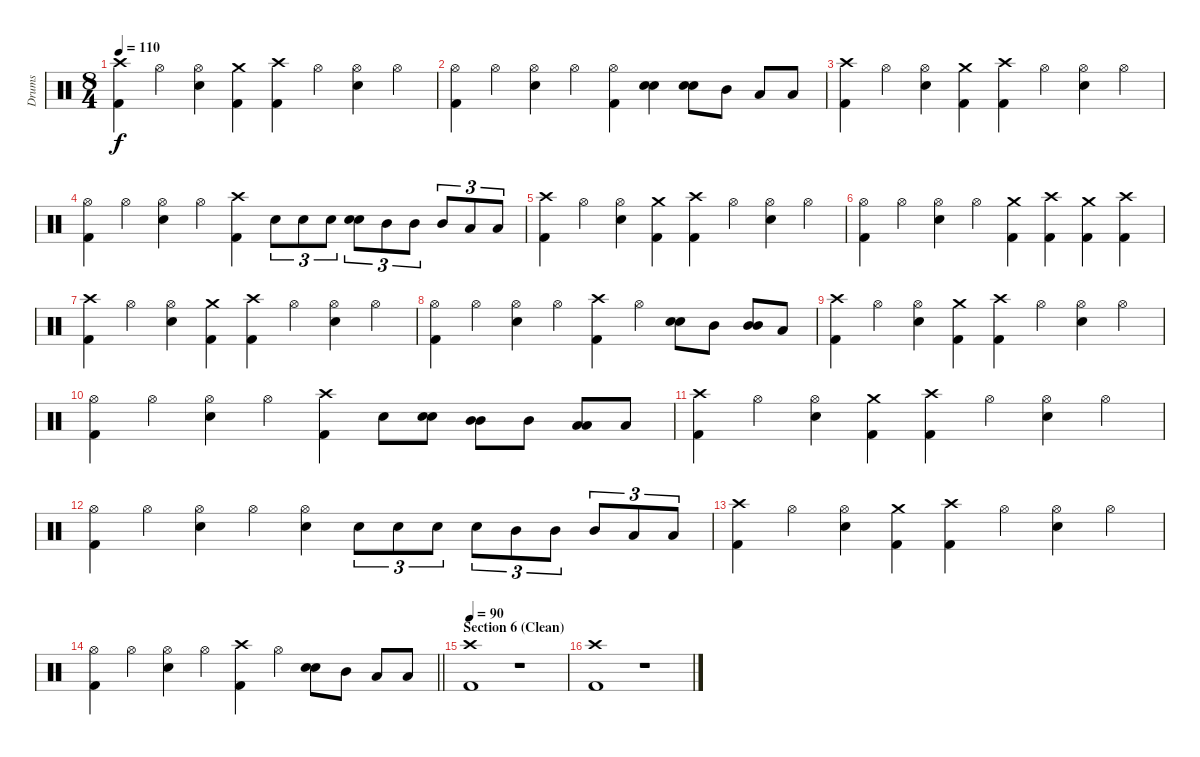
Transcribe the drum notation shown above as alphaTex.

\track ("Drums" "Drums") {instrument percussion}
\staff {score}
\articulation defaults
\ts (8 4)
\tempo 110
\clef neutral
\ks c
("Crash high (hit)" "Kick (hit) 2").4{dy f} "Hi-Hat (open)".4 ("Hi-Hat (open)" "Electric Snare (hit)").4 ("Crash medium (hit)" "Kick (hit) 2").4 ("Crash high (hit)" "Kick (hit) 2").4 "Hi-Hat (open)".4 ("Hi-Hat (open)" "Electric Snare (hit)").4 "Hi-Hat (open)".4 |
("Hi-Hat (open)" "Kick (hit) 2").4 "Hi-Hat (open)".4 ("Hi-Hat (open)" "Electric Snare (hit)").4 "Hi-Hat (open)".4 ("Hi-Hat (open)" "Kick (hit) 2").4 ("Electric Snare (hit)" "Electric Snare (hit)").4{bu 60} ("Electric Snare (hit)" "Electric Snare (hit)").8{bu 60} "Mid Tom (hit)".8 "Low Tom (hit)".8 "Low Tom (hit)".8 |
("Crash high (hit)" "Kick (hit) 2").4 "Hi-Hat (open)".4 ("Hi-Hat (open)" "Electric Snare (hit)").4 ("Crash medium (hit)" "Kick (hit) 2").4 ("Crash high (hit)" "Kick (hit) 2").4 "Hi-Hat (open)".4 ("Hi-Hat (open)" "Electric Snare (hit)").4 "Hi-Hat (open)".4 |
("Hi-Hat (open)" "Kick (hit) 2").4 "Hi-Hat (open)".4 ("Hi-Hat (open)" "Electric Snare (hit)").4 "Hi-Hat (open)".4 ("Crash high (hit)" "Kick (hit) 2").4 "Electric Snare (hit)".8{tu (3 2)} "Electric Snare (hit)".8{tu (3 2)} "Electric Snare (hit)".8{tu (3 2)} ("Electric Snare (hit)" "Electric Snare (hit)").8{tu (3 2) bu 60} "Mid Tom (hit)".8{tu (3 2)} "Mid Tom (hit)".8{tu (3 2)} "Mid Tom (hit)".8{tu (3 2)} "Low Tom (hit)".8{tu (3 2)} "Low Tom (hit)".8{tu (3 2)} |
("Crash high (hit)" "Kick (hit) 2").4 "Hi-Hat (open)".4 ("Hi-Hat (open)" "Electric Snare (hit)").4 ("Crash medium (hit)" "Kick (hit) 2").4 ("Crash high (hit)" "Kick (hit) 2").4 "Hi-Hat (open)".4 ("Hi-Hat (open)" "Electric Snare (hit)").4 "Hi-Hat (open)".4 |
("Hi-Hat (open)" "Kick (hit) 2").4 "Hi-Hat (open)".4 ("Hi-Hat (open)" "Electric Snare (hit)").4 "Hi-Hat (open)".4 ("Crash medium (hit)" "Kick (hit) 2").4 ("Crash high (hit)" "Kick (hit) 2").4 ("Crash medium (hit)" "Kick (hit) 2").4 ("Crash high (hit)" "Kick (hit) 2").4 |
("Crash high (hit)" "Kick (hit) 2").4 "Hi-Hat (open)".4 ("Hi-Hat (open)" "Electric Snare (hit)").4 ("Crash medium (hit)" "Kick (hit) 2").4 ("Crash high (hit)" "Kick (hit) 2").4 "Hi-Hat (open)".4 ("Hi-Hat (open)" "Electric Snare (hit)").4 "Hi-Hat (open)".4 |
("Hi-Hat (open)" "Kick (hit) 2").4 "Hi-Hat (open)".4 ("Hi-Hat (open)" "Electric Snare (hit)").4 "Hi-Hat (open)".4 ("Crash high (hit)" "Kick (hit) 2").4 "Hi-Hat (open)".4 ("Electric Snare (hit)" "Electric Snare (hit)").8{bu 60} "Mid Tom (hit)".8 ("Mid Tom (hit)" "Mid Tom (hit)").8{bu 60} "Low Tom (hit)".8 |
("Crash high (hit)" "Kick (hit) 2").4 "Hi-Hat (open)".4 ("Hi-Hat (open)" "Electric Snare (hit)").4 ("Crash medium (hit)" "Kick (hit) 2").4 ("Crash high (hit)" "Kick (hit) 2").4 "Hi-Hat (open)".4 ("Hi-Hat (open)" "Electric Snare (hit)").4 "Hi-Hat (open)".4 |
("Hi-Hat (open)" "Kick (hit) 2").4 "Hi-Hat (open)".4 ("Hi-Hat (open)" "Electric Snare (hit)").4 "Hi-Hat (open)".4 ("Crash high (hit)" "Kick (hit) 2").4 "Electric Snare (hit)".8 ("Electric Snare (hit)" "Electric Snare (hit)").8{bu 60} ("Mid Tom (hit)" "Mid Tom (hit)").8{bu 60} "Mid Tom (hit)".8 ("Low Tom (hit)" "Low Tom (hit)").8{bu 60} "Low Tom (hit)".8 |
("Crash high (hit)" "Kick (hit) 2").4 "Hi-Hat (open)".4 ("Hi-Hat (open)" "Electric Snare (hit)").4 ("Crash medium (hit)" "Kick (hit) 2").4 ("Crash high (hit)" "Kick (hit) 2").4 "Hi-Hat (open)".4 ("Hi-Hat (open)" "Electric Snare (hit)").4 "Hi-Hat (open)".4 |
("Hi-Hat (open)" "Kick (hit) 2").4 "Hi-Hat (open)".4 ("Hi-Hat (open)" "Electric Snare (hit)").4 "Hi-Hat (open)".4 ("Hi-Hat (open)" "Electric Snare (hit)").4 "Electric Snare (hit)".8{tu (3 2)} "Electric Snare (hit)".8{tu (3 2)} "Electric Snare (hit)".8{tu (3 2)} "Electric Snare (hit)".8{tu (3 2)} "Mid Tom (hit)".8{tu (3 2)} "Mid Tom (hit)".8{tu (3 2)} "Mid Tom (hit)".8{tu (3 2)} "Low Tom (hit)".8{tu (3 2)} "Low Tom (hit)".8{tu (3 2)} |
("Crash high (hit)" "Kick (hit) 2").4 "Hi-Hat (open)".4 ("Hi-Hat (open)" "Electric Snare (hit)").4 ("Crash medium (hit)" "Kick (hit) 2").4 ("Crash high (hit)" "Kick (hit) 2").4 "Hi-Hat (open)".4 ("Hi-Hat (open)" "Electric Snare (hit)").4 "Hi-Hat (open)".4 |
\barLineRight lightlight
("Hi-Hat (open)" "Kick (hit) 2").4 "Hi-Hat (open)".4 ("Hi-Hat (open)" "Electric Snare (hit)").4 "Hi-Hat (open)".4 ("Crash high (hit)" "Kick (hit) 2").4 "Hi-Hat (open)".4 ("Electric Snare (hit)" "Electric Snare (hit)").8{bu 60} "Mid Tom (hit)".8 "Low Tom (hit)".8 "Low Tom (hit)".8 |
\section ("" "Section 6 (Clean)")
\tempo 90
("Crash high (hit)" "Kick (hit) 2").1 r.1 |
("Crash high (hit)" "Kick (hit) 2").1 r.1
